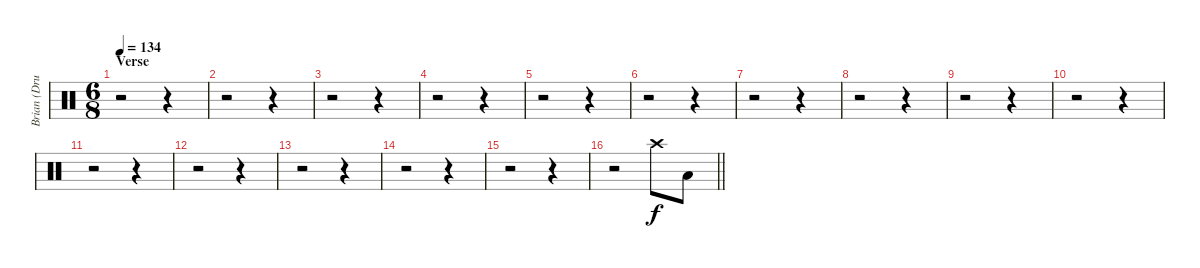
\track ("Brian (Drums)" "Brian (Dru") {instrument percussion}
\staff {score}
\articulation defaults
\ts (6 8)
\section ("" "Verse")
\tempo 134
\clef neutral
\ks c
r.2{dy f} r.4 |
r.2 r.4 |
r.2 r.4 |
r.2 r.4 |
r.2 r.4 |
r.2 r.4 |
r.2 r.4 |
r.2 r.4 |
r.2 r.4 |
r.2 r.4 |
r.2 r.4 |
r.2 r.4 |
r.2 r.4 |
r.2 r.4 |
r.2 r.4 |
\barLineRight lightlight
r.2 "Crash high (hit)".8 "Low Tom (hit)".8
